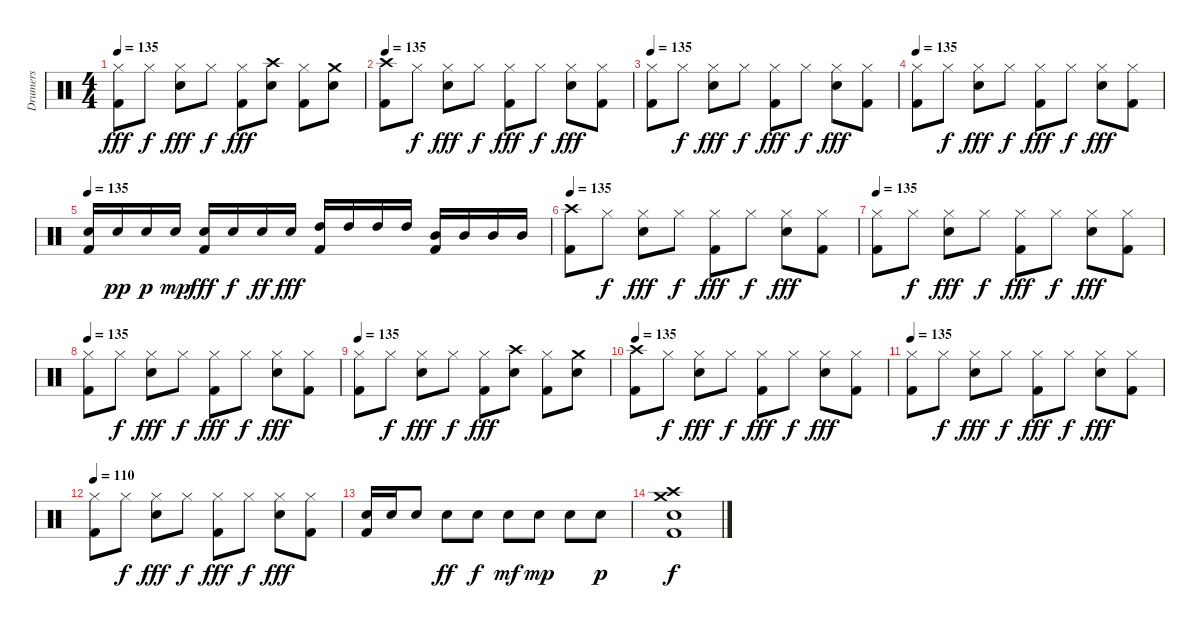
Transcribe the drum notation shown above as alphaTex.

\track ("Drumers" "Drumers") {instrument percussion}
\staff {score}
\articulation defaults
\ts (4 4)
\tempo 135
\clef neutral
\ks c
("Hi-Hat (closed)" "Kick (hit) 2").8{dy fff} "Hi-Hat (closed)".8{dy f} ("Hi-Hat (closed)" "Electric Snare (hit)").8{dy fff} "Hi-Hat (closed)".8{dy f} ("Hi-Hat (closed)" "Kick (hit) 2").8{dy fff} ("Crash high (hit)" "Electric Snare (hit)").8 ("Hi-Hat (closed)" "Kick (hit) 2").8 ("Crash medium (hit)" "Electric Snare (hit)").8 |
\tempo 135
("Crash high (hit)" "Kick (hit) 2").8 "Hi-Hat (closed)".8{dy f} ("Hi-Hat (closed)" "Electric Snare (hit)").8{dy fff} "Hi-Hat (closed)".8{dy f} ("Hi-Hat (closed)" "Kick (hit) 2").8{dy fff} "Hi-Hat (closed)".8{dy f} ("Hi-Hat (closed)" "Electric Snare (hit)").8{dy fff} ("Hi-Hat (closed)" "Kick (hit) 2").8 |
\tempo 135
("Hi-Hat (closed)" "Kick (hit) 2").8 "Hi-Hat (closed)".8{dy f} ("Hi-Hat (closed)" "Electric Snare (hit)").8{dy fff} "Hi-Hat (closed)".8{dy f} ("Hi-Hat (closed)" "Kick (hit) 2").8{dy fff} "Hi-Hat (closed)".8{dy f} ("Hi-Hat (closed)" "Electric Snare (hit)").8{dy fff} ("Hi-Hat (closed)" "Kick (hit) 2").8 |
\tempo 135
("Hi-Hat (closed)" "Kick (hit) 2").8 "Hi-Hat (closed)".8{dy f} ("Hi-Hat (closed)" "Electric Snare (hit)").8{dy fff} "Hi-Hat (closed)".8{dy f} ("Hi-Hat (closed)" "Kick (hit) 2").8{dy fff} "Hi-Hat (closed)".8{dy f} ("Hi-Hat (closed)" "Electric Snare (hit)").8{dy fff} ("Hi-Hat (closed)" "Kick (hit) 2").8 |
\tempo 135
("Electric Snare (hit)" "Kick (hit) 2").16 "Electric Snare (hit)".16{dy pp} "Electric Snare (hit)".16{dy p} "Electric Snare (hit)".16{dy mp} ("Electric Snare (hit)" "Kick (hit) 2").16{dy fff} "Electric Snare (hit)".16{dy f} "Electric Snare (hit)".16{dy ff} "Electric Snare (hit)".16{dy fff} ("High Tom (hit)" "Kick (hit) 2").16 "High Tom (hit)".16 "High Tom (hit)".16 "High Tom (hit)".16 ("Mid Tom (hit)" "Kick (hit) 2").16 "Mid Tom (hit)".16 "Mid Tom (hit)".16 "Mid Tom (hit)".16 |
\tempo 135
("Crash high (hit)" "Kick (hit) 2").8 "Hi-Hat (closed)".8{dy f} ("Hi-Hat (closed)" "Electric Snare (hit)").8{dy fff} "Hi-Hat (closed)".8{dy f} ("Hi-Hat (closed)" "Kick (hit) 2").8{dy fff} "Hi-Hat (closed)".8{dy f} ("Hi-Hat (closed)" "Electric Snare (hit)").8{dy fff} ("Hi-Hat (closed)" "Kick (hit) 2").8 |
\tempo 135
("Hi-Hat (closed)" "Kick (hit) 2").8 "Hi-Hat (closed)".8{dy f} ("Hi-Hat (closed)" "Electric Snare (hit)").8{dy fff} "Hi-Hat (closed)".8{dy f} ("Hi-Hat (closed)" "Kick (hit) 2").8{dy fff} "Hi-Hat (closed)".8{dy f} ("Hi-Hat (closed)" "Electric Snare (hit)").8{dy fff} ("Hi-Hat (closed)" "Kick (hit) 2").8 |
\tempo 135
("Hi-Hat (closed)" "Kick (hit) 2").8 "Hi-Hat (closed)".8{dy f} ("Hi-Hat (closed)" "Electric Snare (hit)").8{dy fff} "Hi-Hat (closed)".8{dy f} ("Hi-Hat (closed)" "Kick (hit) 2").8{dy fff} "Hi-Hat (closed)".8{dy f} ("Hi-Hat (closed)" "Electric Snare (hit)").8{dy fff} ("Hi-Hat (closed)" "Kick (hit) 2").8 |
\tempo 135
("Hi-Hat (closed)" "Kick (hit) 2").8 "Hi-Hat (closed)".8{dy f} ("Hi-Hat (closed)" "Electric Snare (hit)").8{dy fff} "Hi-Hat (closed)".8{dy f} ("Hi-Hat (closed)" "Kick (hit) 2").8{dy fff} ("Crash high (hit)" "Electric Snare (hit)").8 ("Hi-Hat (closed)" "Kick (hit) 2").8 ("Crash medium (hit)" "Electric Snare (hit)").8 |
\tempo 135
("Crash high (hit)" "Kick (hit) 2").8 "Hi-Hat (closed)".8{dy f} ("Hi-Hat (closed)" "Electric Snare (hit)").8{dy fff} "Hi-Hat (closed)".8{dy f} ("Hi-Hat (closed)" "Kick (hit) 2").8{dy fff} "Hi-Hat (closed)".8{dy f} ("Hi-Hat (closed)" "Electric Snare (hit)").8{dy fff} ("Hi-Hat (closed)" "Kick (hit) 2").8 |
\tempo 135
("Hi-Hat (closed)" "Kick (hit) 2").8 "Hi-Hat (closed)".8{dy f} ("Hi-Hat (closed)" "Electric Snare (hit)").8{dy fff} "Hi-Hat (closed)".8{dy f} ("Hi-Hat (closed)" "Kick (hit) 2").8{dy fff} "Hi-Hat (closed)".8{dy f} ("Hi-Hat (closed)" "Electric Snare (hit)").8{dy fff} ("Hi-Hat (closed)" "Kick (hit) 2").8 |
\tempo 110
("Hi-Hat (closed)" "Kick (hit) 2").8 "Hi-Hat (closed)".8{dy f} ("Hi-Hat (closed)" "Electric Snare (hit)").8{dy fff} "Hi-Hat (closed)".8{dy f} ("Hi-Hat (closed)" "Kick (hit) 2").8{dy fff} "Hi-Hat (closed)".8{dy f} ("Hi-Hat (closed)" "Electric Snare (hit)").8{dy fff} ("Hi-Hat (closed)" "Kick (hit) 2").8 |
("Electric Snare (hit)" "Kick (hit) 2").16 "Electric Snare (hit)".16 "Electric Snare (hit)".8 "Electric Snare (hit)".8{dy ff} "Electric Snare (hit)".8{dy f} "Electric Snare (hit)".8{dy mf} "Electric Snare (hit)".8{dy mp} "Electric Snare (hit)".8 "Electric Snare (hit)".8{dy p} |
("Crash high (hit)" "Crash medium (hit)" "Electric Snare (hit)" "Kick (hit) 2").1{dy f}
